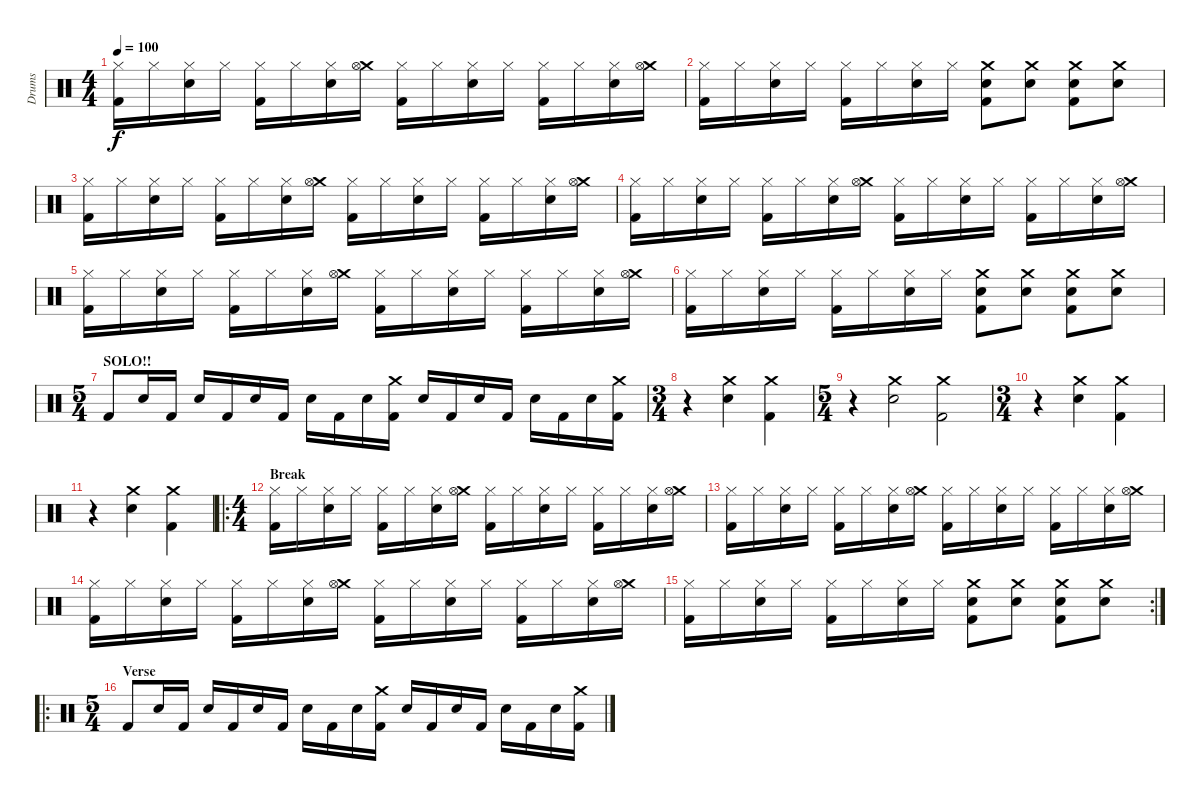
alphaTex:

\track ("Drums" "Drums") {instrument percussion}
\staff {score}
\articulation defaults
\ts (4 4)
\tempo 100
\clef neutral
\ks c
("Hi-Hat (closed)" "Kick (hit) 2").16{dy f} "Hi-Hat (closed)".16 ("Hi-Hat (closed)" "Snare (hit) 2").16 "Hi-Hat (closed)".16 ("Hi-Hat (closed)" "Kick (hit) 2").16 "Hi-Hat (closed)".16 ("Hi-Hat (closed)" "Snare (hit) 2").16 ("Crash medium (hit)" "Hi-Hat (open)").16 ("Hi-Hat (closed)" "Kick (hit) 2").16 "Hi-Hat (closed)".16 ("Hi-Hat (closed)" "Snare (hit) 2").16 "Hi-Hat (closed)".16 ("Hi-Hat (closed)" "Kick (hit) 2").16 "Hi-Hat (closed)".16 ("Hi-Hat (closed)" "Snare (hit) 2").16 ("Crash medium (hit)" "Hi-Hat (open)").16 |
("Hi-Hat (closed)" "Kick (hit) 2").16 "Hi-Hat (closed)".16 ("Hi-Hat (closed)" "Snare (hit) 2").16 "Hi-Hat (closed)".16 ("Hi-Hat (closed)" "Kick (hit) 2").16 "Hi-Hat (closed)".16 ("Hi-Hat (closed)" "Snare (hit) 2").16 "Hi-Hat (closed)".16 ("Crash medium (hit)" "Snare (hit) 2" "Kick (hit) 2").8 ("Crash medium (hit)" "Snare (hit) 2").8 ("Crash medium (hit)" "Snare (hit) 2" "Kick (hit) 2").8 ("Crash medium (hit)" "Snare (hit) 2").8 |
("Hi-Hat (closed)" "Kick (hit) 2").16 "Hi-Hat (closed)".16 ("Hi-Hat (closed)" "Snare (hit) 2").16 "Hi-Hat (closed)".16 ("Hi-Hat (closed)" "Kick (hit) 2").16 "Hi-Hat (closed)".16 ("Hi-Hat (closed)" "Snare (hit) 2").16 ("Crash medium (hit)" "Hi-Hat (open)").16 ("Hi-Hat (closed)" "Kick (hit) 2").16 "Hi-Hat (closed)".16 ("Hi-Hat (closed)" "Snare (hit) 2").16 "Hi-Hat (closed)".16 ("Hi-Hat (closed)" "Kick (hit) 2").16 "Hi-Hat (closed)".16 ("Hi-Hat (closed)" "Snare (hit) 2").16 ("Crash medium (hit)" "Hi-Hat (open)").16 |
("Hi-Hat (closed)" "Kick (hit) 2").16 "Hi-Hat (closed)".16 ("Hi-Hat (closed)" "Snare (hit) 2").16 "Hi-Hat (closed)".16 ("Hi-Hat (closed)" "Kick (hit) 2").16 "Hi-Hat (closed)".16 ("Hi-Hat (closed)" "Snare (hit) 2").16 ("Crash medium (hit)" "Hi-Hat (open)").16 ("Hi-Hat (closed)" "Kick (hit) 2").16 "Hi-Hat (closed)".16 ("Hi-Hat (closed)" "Snare (hit) 2").16 "Hi-Hat (closed)".16 ("Hi-Hat (closed)" "Kick (hit) 2").16 "Hi-Hat (closed)".16 ("Hi-Hat (closed)" "Snare (hit) 2").16 ("Crash medium (hit)" "Hi-Hat (open)").16 |
("Hi-Hat (closed)" "Kick (hit) 2").16 "Hi-Hat (closed)".16 ("Hi-Hat (closed)" "Snare (hit) 2").16 "Hi-Hat (closed)".16 ("Hi-Hat (closed)" "Kick (hit) 2").16 "Hi-Hat (closed)".16 ("Hi-Hat (closed)" "Snare (hit) 2").16 ("Crash medium (hit)" "Hi-Hat (open)").16 ("Hi-Hat (closed)" "Kick (hit) 2").16 "Hi-Hat (closed)".16 ("Hi-Hat (closed)" "Snare (hit) 2").16 "Hi-Hat (closed)".16 ("Hi-Hat (closed)" "Kick (hit) 2").16 "Hi-Hat (closed)".16 ("Hi-Hat (closed)" "Snare (hit) 2").16 ("Crash medium (hit)" "Hi-Hat (open)").16 |
("Hi-Hat (closed)" "Kick (hit) 2").16 "Hi-Hat (closed)".16 ("Hi-Hat (closed)" "Snare (hit) 2").16 "Hi-Hat (closed)".16 ("Hi-Hat (closed)" "Kick (hit) 2").16 "Hi-Hat (closed)".16 ("Hi-Hat (closed)" "Snare (hit) 2").16 "Hi-Hat (closed)".16 ("Crash medium (hit)" "Snare (hit) 2" "Kick (hit) 2").8 ("Crash medium (hit)" "Snare (hit) 2").8 ("Crash medium (hit)" "Snare (hit) 2" "Kick (hit) 2").8 ("Crash medium (hit)" "Snare (hit) 2").8 |
\ts (5 4)
\section ("" "SOLO!!")
"Kick (hit) 2".8 "Snare (hit) 2".16 "Kick (hit) 2".16 "Snare (hit) 2".16 "Kick (hit) 2".16 "Snare (hit) 2".16 "Kick (hit) 2".16 "Snare (hit) 2".16 "Kick (hit) 2".16 "Snare (hit) 2".16 ("Crash medium (hit)" "Kick (hit) 2").16 "Snare (hit) 2".16 "Kick (hit) 2".16 "Snare (hit) 2".16 "Kick (hit) 2".16 "Snare (hit) 2".16 "Kick (hit) 2".16 "Snare (hit) 2".16 ("Crash medium (hit)" "Kick (hit) 2").16 |
\ts (3 4)
r.4 ("Crash medium (hit)" "Snare (hit) 2").4 ("Crash medium (hit)" "Kick (hit) 2").4 |
\ts (5 4)
r.4 ("Crash medium (hit)" "Snare (hit) 2").2 ("Crash medium (hit)" "Kick (hit) 2").2 |
\ts (3 4)
r.4 ("Crash medium (hit)" "Snare (hit) 2").4 ("Crash medium (hit)" "Kick (hit) 2").4 |
r.4 ("Crash medium (hit)" "Snare (hit) 2").4 ("Crash medium (hit)" "Kick (hit) 2").4 |
\ro
\ts (4 4)
\section ("" "Break")
("Hi-Hat (closed)" "Kick (hit) 2").16 "Hi-Hat (closed)".16 ("Hi-Hat (closed)" "Snare (hit) 2").16 "Hi-Hat (closed)".16 ("Hi-Hat (closed)" "Kick (hit) 2").16 "Hi-Hat (closed)".16 ("Hi-Hat (closed)" "Snare (hit) 2").16 ("Crash medium (hit)" "Hi-Hat (open)").16 ("Hi-Hat (closed)" "Kick (hit) 2").16 "Hi-Hat (closed)".16 ("Hi-Hat (closed)" "Snare (hit) 2").16 "Hi-Hat (closed)".16 ("Hi-Hat (closed)" "Kick (hit) 2").16 "Hi-Hat (closed)".16 ("Hi-Hat (closed)" "Snare (hit) 2").16 ("Crash medium (hit)" "Hi-Hat (open)").16 |
("Hi-Hat (closed)" "Kick (hit) 2").16 "Hi-Hat (closed)".16 ("Hi-Hat (closed)" "Snare (hit) 2").16 "Hi-Hat (closed)".16 ("Hi-Hat (closed)" "Kick (hit) 2").16 "Hi-Hat (closed)".16 ("Hi-Hat (closed)" "Snare (hit) 2").16 ("Crash medium (hit)" "Hi-Hat (open)").16 ("Hi-Hat (closed)" "Kick (hit) 2").16 "Hi-Hat (closed)".16 ("Hi-Hat (closed)" "Snare (hit) 2").16 "Hi-Hat (closed)".16 ("Hi-Hat (closed)" "Kick (hit) 2").16 "Hi-Hat (closed)".16 ("Hi-Hat (closed)" "Snare (hit) 2").16 ("Crash medium (hit)" "Hi-Hat (open)").16 |
("Hi-Hat (closed)" "Kick (hit) 2").16 "Hi-Hat (closed)".16 ("Hi-Hat (closed)" "Snare (hit) 2").16 "Hi-Hat (closed)".16 ("Hi-Hat (closed)" "Kick (hit) 2").16 "Hi-Hat (closed)".16 ("Hi-Hat (closed)" "Snare (hit) 2").16 ("Crash medium (hit)" "Hi-Hat (open)").16 ("Hi-Hat (closed)" "Kick (hit) 2").16 "Hi-Hat (closed)".16 ("Hi-Hat (closed)" "Snare (hit) 2").16 "Hi-Hat (closed)".16 ("Hi-Hat (closed)" "Kick (hit) 2").16 "Hi-Hat (closed)".16 ("Hi-Hat (closed)" "Snare (hit) 2").16 ("Crash medium (hit)" "Hi-Hat (open)").16 |
\rc 2
("Hi-Hat (closed)" "Kick (hit) 2").16 "Hi-Hat (closed)".16 ("Hi-Hat (closed)" "Snare (hit) 2").16 "Hi-Hat (closed)".16 ("Hi-Hat (closed)" "Kick (hit) 2").16 "Hi-Hat (closed)".16 ("Hi-Hat (closed)" "Snare (hit) 2").16 "Hi-Hat (closed)".16 ("Crash medium (hit)" "Snare (hit) 2" "Kick (hit) 2").8 ("Crash medium (hit)" "Snare (hit) 2").8 ("Crash medium (hit)" "Snare (hit) 2" "Kick (hit) 2").8 ("Crash medium (hit)" "Snare (hit) 2").8 |
\ro
\ts (5 4)
\section ("" "Verse")
"Kick (hit) 2".8 "Snare (hit) 2".16 "Kick (hit) 2".16 "Snare (hit) 2".16 "Kick (hit) 2".16 "Snare (hit) 2".16 "Kick (hit) 2".16 "Snare (hit) 2".16 "Kick (hit) 2".16 "Snare (hit) 2".16 ("Crash medium (hit)" "Kick (hit) 2").16 "Snare (hit) 2".16 "Kick (hit) 2".16 "Snare (hit) 2".16 "Kick (hit) 2".16 "Snare (hit) 2".16 "Kick (hit) 2".16 "Snare (hit) 2".16 ("Crash medium (hit)" "Kick (hit) 2").16
